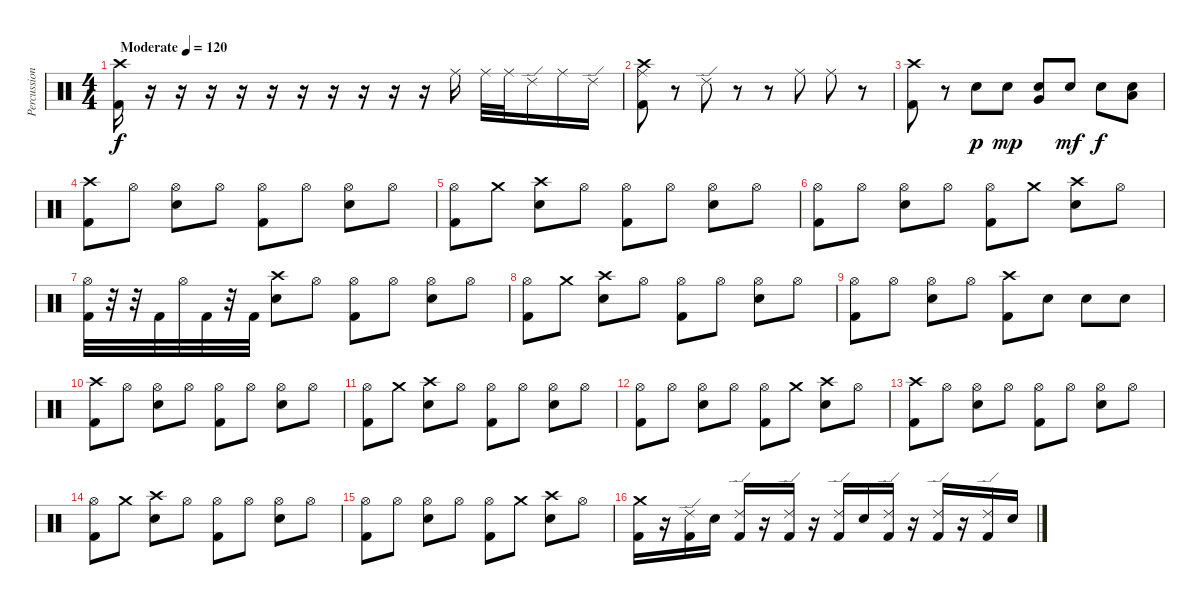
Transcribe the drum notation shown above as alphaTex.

\track ("Percussion" "Percussion") {instrument percussion}
\staff {score}
\articulation defaults
\ts (4 4)
\tempo (120 "Moderate")
\clef neutral
\ks c
("Crash high (hit)" "Kick (hit) 2").16{dy f} r.16 r.16 r.16 r.16 r.16 r.16 r.16 r.16 r.16 r.16 "Ride (middle)".16 "Ride (middle)".32 "Ride (middle)".32 "Ride (edge) 2".16 "Ride (middle)".16 "Ride (edge) 2".16 |
("Crash high (hit)" "Ride (middle)" "Kick (hit) 2").8 r.8 "Ride (edge) 2".8 r.8 r.8 "Ride (middle)".8 "Ride (middle)".8 r.8 |
("Crash high (hit)" "Kick (hit) 2").8 r.8 "Snare (hit) 2".8{dy p} "Snare (hit) 2".8{dy mp} ("Snare (hit) 2" "Very Low Tom (hit)").8 "Snare (hit) 2".8{dy mf} "Snare (hit) 2".8{dy f} ("Snare (hit) 2" "Low Floor Tom (hit)").8 |
("Crash high (hit)" "Kick (hit) 2").8 "Hi-Hat (open)".8 ("Hi-Hat (open)" "Snare (hit) 2").8 "Hi-Hat (open)".8 ("Hi-Hat (open)" "Kick (hit) 2").8 "Hi-Hat (open)".8 ("Hi-Hat (open)" "Snare (hit) 2").8 "Hi-Hat (open)".8 |
("Hi-Hat (open)" "Kick (hit) 2").8 "Crash medium (hit)".8 ("Crash high (hit)" "Snare (hit) 2").8 "Hi-Hat (open)".8 ("Hi-Hat (open)" "Kick (hit) 2").8 "Hi-Hat (open)".8 ("Hi-Hat (open)" "Snare (hit) 2").8 "Hi-Hat (open)".8 |
("Hi-Hat (open)" "Kick (hit) 2").8 "Hi-Hat (open)".8 ("Hi-Hat (open)" "Snare (hit) 2").8 "Hi-Hat (open)".8 ("Hi-Hat (open)" "Kick (hit) 2").8 "Crash medium (hit)".8 ("Crash high (hit)" "Snare (hit) 2").8 "Hi-Hat (open)".8 |
("Hi-Hat (open)" "Kick (hit) 2").32 r.32 r.32 "Kick (hit) 2".32 "Hi-Hat (open)".32 "Kick (hit) 2".32 r.32 "Kick (hit) 2".32 ("Crash high (hit)" "Snare (hit) 2").8 "Hi-Hat (open)".8 ("Hi-Hat (open)" "Kick (hit) 2").8 "Hi-Hat (open)".8 ("Hi-Hat (open)" "Snare (hit) 2").8 "Hi-Hat (open)".8 |
("Hi-Hat (open)" "Kick (hit) 2").8 "Crash medium (hit)".8 ("Crash high (hit)" "Snare (hit) 2").8 "Hi-Hat (open)".8 ("Hi-Hat (open)" "Kick (hit) 2").8 "Hi-Hat (open)".8 ("Hi-Hat (open)" "Snare (hit) 2").8 "Hi-Hat (open)".8 |
("Hi-Hat (open)" "Kick (hit) 2").8 "Hi-Hat (open)".8 ("Hi-Hat (open)" "Snare (hit) 2").8 "Hi-Hat (open)".8 ("Crash high (hit)" "Kick (hit) 2").8 "Snare (hit) 2".8 "Snare (hit) 2".8 "Snare (hit) 2".8 |
("Crash high (hit)" "Kick (hit) 2").8 "Hi-Hat (open)".8 ("Hi-Hat (open)" "Snare (hit) 2").8 "Hi-Hat (open)".8 ("Hi-Hat (open)" "Kick (hit) 2").8 "Hi-Hat (open)".8 ("Hi-Hat (open)" "Snare (hit) 2").8 "Hi-Hat (open)".8 |
("Hi-Hat (open)" "Kick (hit) 2").8 "Crash medium (hit)".8 ("Crash high (hit)" "Snare (hit) 2").8 "Hi-Hat (open)".8 ("Hi-Hat (open)" "Kick (hit) 2").8 "Hi-Hat (open)".8 ("Hi-Hat (open)" "Snare (hit) 2").8 "Hi-Hat (open)".8 |
("Hi-Hat (open)" "Kick (hit) 2").8 "Hi-Hat (open)".8 ("Hi-Hat (open)" "Snare (hit) 2").8 "Hi-Hat (open)".8 ("Hi-Hat (open)" "Kick (hit) 2").8 "Crash medium (hit)".8 ("Crash high (hit)" "Snare (hit) 2").8 "Hi-Hat (open)".8 |
("Crash high (hit)" "Kick (hit) 2").8 "Hi-Hat (open)".8 ("Hi-Hat (open)" "Snare (hit) 2").8 "Hi-Hat (open)".8 ("Hi-Hat (open)" "Kick (hit) 2").8 "Hi-Hat (open)".8 ("Hi-Hat (open)" "Snare (hit) 2").8 "Hi-Hat (open)".8 |
("Hi-Hat (open)" "Kick (hit) 2").8 "Crash medium (hit)".8 ("Crash high (hit)" "Snare (hit) 2").8 "Hi-Hat (open)".8 ("Hi-Hat (open)" "Kick (hit) 2").8 "Hi-Hat (open)".8 ("Hi-Hat (open)" "Snare (hit) 2").8 "Hi-Hat (open)".8 |
("Hi-Hat (open)" "Kick (hit) 2").8 "Hi-Hat (open)".8 ("Hi-Hat (open)" "Snare (hit) 2").8 "Hi-Hat (open)".8 ("Hi-Hat (open)" "Kick (hit) 2").8 "Crash medium (hit)".8 ("Crash high (hit)" "Snare (hit) 2").8 "Hi-Hat (open)".8 |
("Crash medium (hit)" "Kick (hit) 2").16 r.16 ("Ride (edge) 2" "Kick (hit) 2").16 "Snare (hit) 2".16 ("Ride (edge) 2" "Kick (hit) 2").16 r.16 ("Ride (edge) 2" "Kick (hit) 2").16 r.16 ("Ride (edge) 2" "Kick (hit) 2").16 "Snare (hit) 2".16 ("Ride (edge) 2" "Kick (hit) 2").16 r.16 ("Ride (edge) 2" "Kick (hit) 2").16 r.16 ("Ride (edge) 2" "Kick (hit) 2").16 "Snare (hit) 2".16
